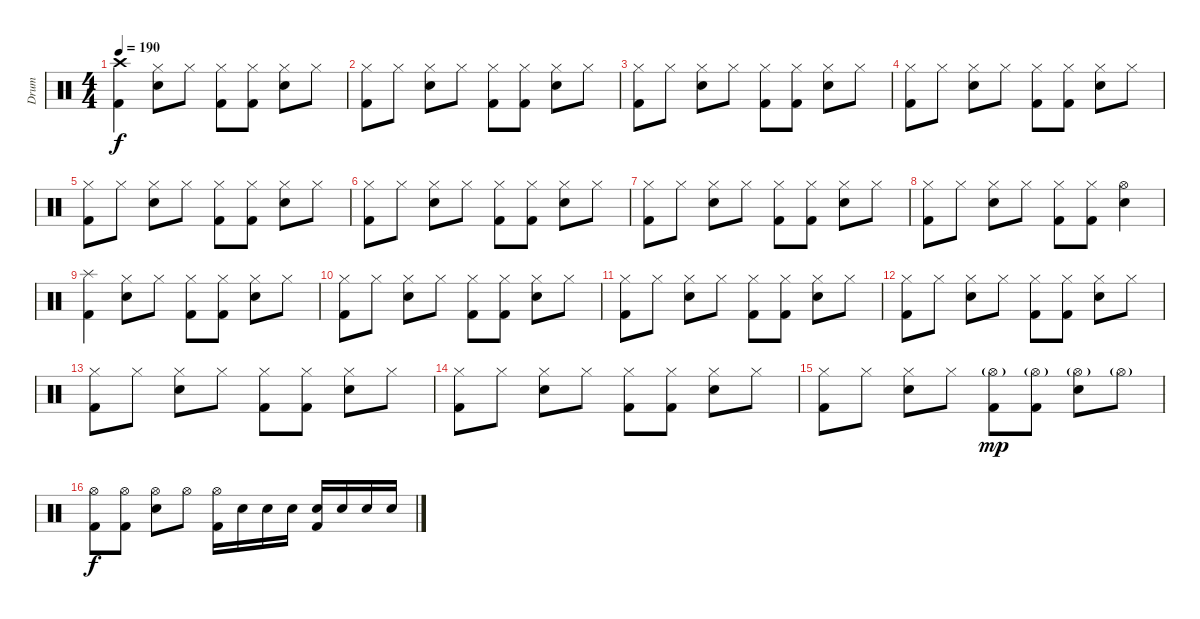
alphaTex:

\track ("Drum" "Drum") {instrument percussion}
\staff {score}
\articulation defaults
\ts (4 4)
\tempo 190
\clef neutral
\ks c
("Crash high (hit)" "Kick (hit) 2").4{dy f} ("Hi-Hat (closed)" "Electric Snare (hit)").8 "Hi-Hat (closed)".8 ("Hi-Hat (closed)" "Kick (hit) 2").8 ("Hi-Hat (closed)" "Kick (hit) 2").8 ("Hi-Hat (closed)" "Electric Snare (hit)").8 "Hi-Hat (closed)".8 |
("Hi-Hat (closed)" "Kick (hit) 2").8 "Hi-Hat (closed)".8 ("Hi-Hat (closed)" "Electric Snare (hit)").8 "Hi-Hat (closed)".8 ("Hi-Hat (closed)" "Kick (hit) 2").8 ("Hi-Hat (closed)" "Kick (hit) 2").8 ("Hi-Hat (closed)" "Electric Snare (hit)").8 "Hi-Hat (closed)".8 |
("Hi-Hat (closed)" "Kick (hit) 2").8 "Hi-Hat (closed)".8 ("Hi-Hat (closed)" "Electric Snare (hit)").8 "Hi-Hat (closed)".8 ("Hi-Hat (closed)" "Kick (hit) 2").8 ("Hi-Hat (closed)" "Kick (hit) 2").8 ("Hi-Hat (closed)" "Electric Snare (hit)").8 "Hi-Hat (closed)".8 |
("Hi-Hat (closed)" "Kick (hit) 2").8 "Hi-Hat (closed)".8 ("Hi-Hat (closed)" "Electric Snare (hit)").8 "Hi-Hat (closed)".8 ("Hi-Hat (closed)" "Kick (hit) 2").8 ("Hi-Hat (closed)" "Kick (hit) 2").8 ("Hi-Hat (closed)" "Electric Snare (hit)").8 "Hi-Hat (closed)".8 |
("Hi-Hat (closed)" "Kick (hit) 2").8 "Hi-Hat (closed)".8 ("Hi-Hat (closed)" "Electric Snare (hit)").8 "Hi-Hat (closed)".8 ("Hi-Hat (closed)" "Kick (hit) 2").8 ("Hi-Hat (closed)" "Kick (hit) 2").8 ("Hi-Hat (closed)" "Electric Snare (hit)").8 "Hi-Hat (closed)".8 |
("Hi-Hat (closed)" "Kick (hit) 2").8 "Hi-Hat (closed)".8 ("Hi-Hat (closed)" "Electric Snare (hit)").8 "Hi-Hat (closed)".8 ("Hi-Hat (closed)" "Kick (hit) 2").8 ("Hi-Hat (closed)" "Kick (hit) 2").8 ("Hi-Hat (closed)" "Electric Snare (hit)").8 "Hi-Hat (closed)".8 |
("Hi-Hat (closed)" "Kick (hit) 2").8 "Hi-Hat (closed)".8 ("Hi-Hat (closed)" "Electric Snare (hit)").8 "Hi-Hat (closed)".8 ("Hi-Hat (closed)" "Kick (hit) 2").8 ("Hi-Hat (closed)" "Kick (hit) 2").8 ("Hi-Hat (closed)" "Electric Snare (hit)").8 "Hi-Hat (closed)".8 |
("Hi-Hat (closed)" "Kick (hit) 2").8 "Hi-Hat (closed)".8 ("Hi-Hat (closed)" "Electric Snare (hit)").8 "Hi-Hat (closed)".8 ("Hi-Hat (closed)" "Kick (hit) 2").8 ("Hi-Hat (closed)" "Kick (hit) 2").8 ("Hi-Hat (open)" "Electric Snare (hit)").4 |
("Splash (hit)" "Kick (hit) 2").4 ("Hi-Hat (closed)" "Electric Snare (hit)").8 "Hi-Hat (closed)".8 ("Hi-Hat (closed)" "Kick (hit) 2").8 ("Hi-Hat (closed)" "Kick (hit) 2").8 ("Hi-Hat (closed)" "Electric Snare (hit)").8 "Hi-Hat (closed)".8 |
("Hi-Hat (closed)" "Kick (hit) 2").8 "Hi-Hat (closed)".8 ("Hi-Hat (closed)" "Electric Snare (hit)").8 "Hi-Hat (closed)".8 ("Hi-Hat (closed)" "Kick (hit) 2").8 ("Hi-Hat (closed)" "Kick (hit) 2").8 ("Hi-Hat (closed)" "Electric Snare (hit)").8 "Hi-Hat (closed)".8 |
("Hi-Hat (closed)" "Kick (hit) 2").8 "Hi-Hat (closed)".8 ("Hi-Hat (closed)" "Electric Snare (hit)").8 "Hi-Hat (closed)".8 ("Hi-Hat (closed)" "Kick (hit) 2").8 ("Hi-Hat (closed)" "Kick (hit) 2").8 ("Hi-Hat (closed)" "Electric Snare (hit)").8 "Hi-Hat (closed)".8 |
("Hi-Hat (closed)" "Kick (hit) 2").8 "Hi-Hat (closed)".8 ("Hi-Hat (closed)" "Electric Snare (hit)").8 "Hi-Hat (closed)".8 ("Hi-Hat (closed)" "Kick (hit) 2").8 ("Hi-Hat (closed)" "Kick (hit) 2").8 ("Hi-Hat (closed)" "Electric Snare (hit)").8 "Hi-Hat (closed)".8 |
("Hi-Hat (closed)" "Kick (hit) 2").8 "Hi-Hat (closed)".8 ("Hi-Hat (closed)" "Electric Snare (hit)").8 "Hi-Hat (closed)".8 ("Hi-Hat (closed)" "Kick (hit) 2").8 ("Hi-Hat (closed)" "Kick (hit) 2").8 ("Hi-Hat (closed)" "Electric Snare (hit)").8 "Hi-Hat (closed)".8 |
("Hi-Hat (closed)" "Kick (hit) 2").8 "Hi-Hat (closed)".8 ("Hi-Hat (closed)" "Electric Snare (hit)").8 "Hi-Hat (closed)".8 ("Hi-Hat (closed)" "Kick (hit) 2").8 ("Hi-Hat (closed)" "Kick (hit) 2").8 ("Hi-Hat (closed)" "Electric Snare (hit)").8 "Hi-Hat (closed)".8 |
("Hi-Hat (closed)" "Kick (hit) 2").8 "Hi-Hat (closed)".8 ("Hi-Hat (closed)" "Electric Snare (hit)").8 "Hi-Hat (closed)".8 ("Hi-Hat (open)"{g} "Kick (hit) 2").8{dy mp} ("Hi-Hat (open)"{g} "Kick (hit) 2").8 ("Hi-Hat (open)"{g} "Electric Snare (hit)").8 "Hi-Hat (open)"{g}.8 |
("Hi-Hat (open)" "Kick (hit) 2").8{dy f} ("Hi-Hat (open)" "Kick (hit) 2").8 ("Hi-Hat (open)" "Electric Snare (hit)").8 "Hi-Hat (open)".8 ("Hi-Hat (open)" "Kick (hit) 2").16 "Electric Snare (hit)".16 "Electric Snare (hit)".16 "Electric Snare (hit)".16 ("Electric Snare (hit)" "Kick (hit) 2").16 "Electric Snare (hit)".16 "Electric Snare (hit)".16 "Electric Snare (hit)".16
